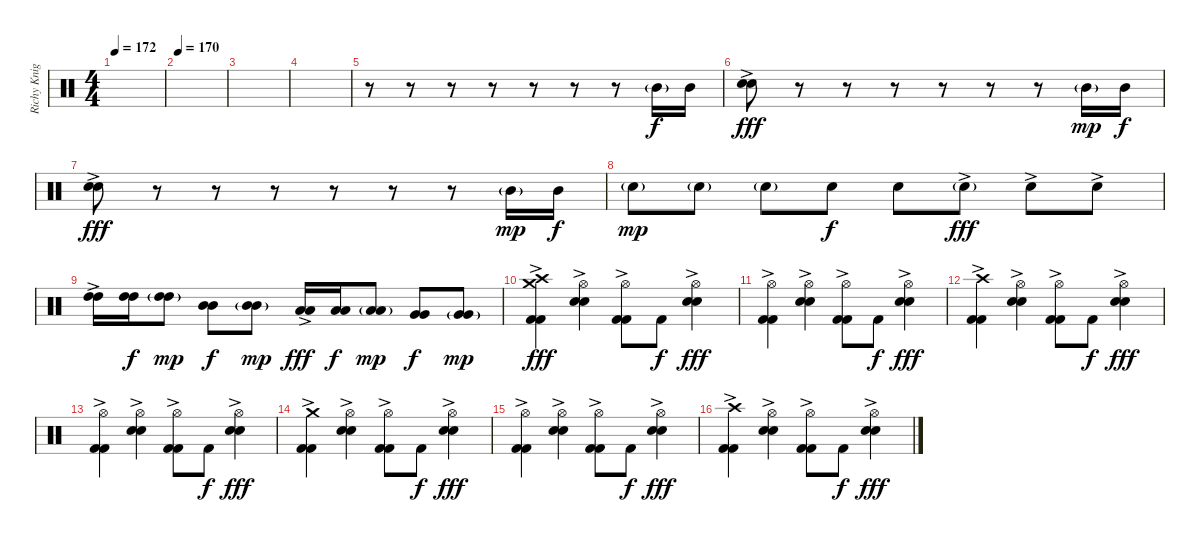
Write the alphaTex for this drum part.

\track ("Richy Knight (Drums)" "Richy Knig") {instrument percussion}
\staff {score}
\articulation defaults
\ts (4 4)
\tempo 172
\clef neutral
\ks c
|
\tempo 170
|
|
|
r.8 r.8 r.8 r.8 r.8 r.8 r.8 "Mid Tom (hit)"{g}.16 "Mid Tom (hit)".16{dy f} |
("Electric Snare (hit)"{ac} "Electric Snare (hit)"{ac}).8{dy fff} r.8 r.8 r.8 r.8 r.8 r.8 "Mid Tom (hit)"{g}.16{dy mp} "Mid Tom (hit)".16{dy f} |
("Electric Snare (hit)"{ac} "Electric Snare (hit)"{ac}).8{dy fff} r.8 r.8 r.8 r.8 r.8 r.8 "Mid Tom (hit)"{g}.16{dy mp} "Mid Tom (hit)".16{dy f} |
"Electric Snare (hit)"{g}.8{dy mp} "Electric Snare (hit)"{g}.8 "Electric Snare (hit)"{g}.8 "Electric Snare (hit)".8{dy f} "Electric Snare (hit)".8 "Electric Snare (hit)"{g ac}.8{dy fff} "Electric Snare (hit)"{ac}.8 "Electric Snare (hit)"{ac}.8 |
("High Tom (hit)"{ac} "High Tom (hit)"{ac}).16 ("High Tom (hit)" "High Tom (hit)").16{dy f} ("High Tom (hit)"{g} "High Tom (hit)"{g}).8{dy mp} ("Mid Tom (hit)" "Mid Tom (hit)").8{dy f} ("Mid Tom (hit)"{g} "Mid Tom (hit)"{g}).8{dy mp} ("Low Tom (hit)"{ac} "Low Tom (hit)"{ac}).16{dy fff} ("Low Tom (hit)" "Low Tom (hit)").16{dy f} ("Low Tom (hit)"{g} "Low Tom (hit)"{g}).8{dy mp} ("Very Low Tom (hit)" "Very Low Tom (hit)").8{dy f} ("Very Low Tom (hit)"{g} "Very Low Tom (hit)"{g}).8{dy mp} |
("Crash high (hit)"{ac} "Crash medium (hit)"{ac} "Kick (hit) 2"{ac} "Kick (hit) 2"{ac}).4{dy fff} ("Hi-Hat (open)"{ac} "Electric Snare (hit)"{ac} "Electric Snare (hit)"{ac}).4 ("Hi-Hat (open)"{ac} "Kick (hit) 2"{ac} "Kick (hit) 2"{ac}).8 "Kick (hit) 2".8{dy f} ("Hi-Hat (open)"{ac} "Electric Snare (hit)"{ac} "Electric Snare (hit)"{ac}).4{dy fff} |
("Hi-Hat (open)"{ac} "Kick (hit) 2"{ac} "Kick (hit) 2"{ac}).4 ("Hi-Hat (open)"{ac} "Electric Snare (hit)"{ac} "Electric Snare (hit)"{ac}).4 ("Hi-Hat (open)"{ac} "Kick (hit) 2"{ac} "Kick (hit) 2"{ac}).8 "Kick (hit) 2".8{dy f} ("Hi-Hat (open)"{ac} "Electric Snare (hit)"{ac} "Electric Snare (hit)"{ac}).4{dy fff} |
("Crash high (hit)"{ac} "Kick (hit) 2"{ac} "Kick (hit) 2"{ac}).4 ("Hi-Hat (open)"{ac} "Electric Snare (hit)"{ac} "Electric Snare (hit)"{ac}).4 ("Hi-Hat (open)"{ac} "Kick (hit) 2"{ac} "Kick (hit) 2"{ac}).8 "Kick (hit) 2".8{dy f} ("Hi-Hat (open)"{ac} "Electric Snare (hit)"{ac} "Electric Snare (hit)"{ac}).4{dy fff} |
("Hi-Hat (open)"{ac} "Kick (hit) 2"{ac} "Kick (hit) 2"{ac}).4 ("Hi-Hat (open)"{ac} "Electric Snare (hit)"{ac} "Electric Snare (hit)"{ac}).4 ("Hi-Hat (open)"{ac} "Kick (hit) 2"{ac} "Kick (hit) 2"{ac}).8 "Kick (hit) 2".8{dy f} ("Hi-Hat (open)"{ac} "Electric Snare (hit)"{ac} "Electric Snare (hit)"{ac}).4{dy fff} |
("Crash medium (hit)"{ac} "Kick (hit) 2"{ac} "Kick (hit) 2"{ac}).4 ("Hi-Hat (open)"{ac} "Electric Snare (hit)"{ac} "Electric Snare (hit)"{ac}).4 ("Hi-Hat (open)"{ac} "Kick (hit) 2"{ac} "Kick (hit) 2"{ac}).8 "Kick (hit) 2".8{dy f} ("Hi-Hat (open)"{ac} "Electric Snare (hit)"{ac} "Electric Snare (hit)"{ac}).4{dy fff} |
("Hi-Hat (open)"{ac} "Kick (hit) 2"{ac} "Kick (hit) 2"{ac}).4 ("Hi-Hat (open)"{ac} "Electric Snare (hit)"{ac} "Electric Snare (hit)"{ac}).4 ("Hi-Hat (open)"{ac} "Kick (hit) 2"{ac} "Kick (hit) 2"{ac}).8 "Kick (hit) 2".8{dy f} ("Hi-Hat (open)"{ac} "Electric Snare (hit)"{ac} "Electric Snare (hit)"{ac}).4{dy fff} |
("Crash high (hit)"{ac} "Kick (hit) 2"{ac} "Kick (hit) 2"{ac}).4 ("Hi-Hat (open)"{ac} "Electric Snare (hit)"{ac} "Electric Snare (hit)"{ac}).4 ("Hi-Hat (open)"{ac} "Kick (hit) 2"{ac} "Kick (hit) 2"{ac}).8 "Kick (hit) 2".8{dy f} ("Hi-Hat (open)"{ac} "Electric Snare (hit)"{ac} "Electric Snare (hit)"{ac}).4{dy fff}
